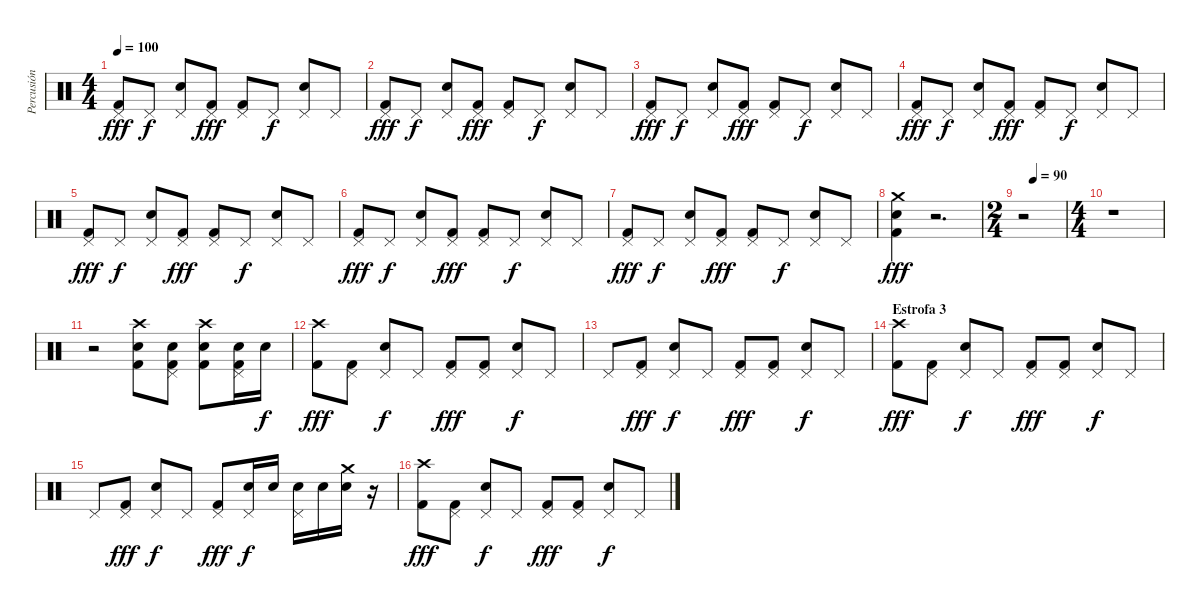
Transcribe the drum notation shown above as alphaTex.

\track ("Percusión" "Percusión") {instrument percussion}
\staff {score}
\articulation defaults
\ts (4 4)
\tempo 100
\clef neutral
\ks c
("Pedal Hi-Hat (hit)" "Kick (hit) 2").8{dy fff} "Pedal Hi-Hat (hit)".8{dy f} ("Pedal Hi-Hat (hit)" "Snare (hit) 2").8 ("Pedal Hi-Hat (hit)" "Kick (hit) 2").8{dy fff} ("Pedal Hi-Hat (hit)" "Kick (hit) 2").8 "Pedal Hi-Hat (hit)".8{dy f} ("Pedal Hi-Hat (hit)" "Snare (hit) 2").8 "Pedal Hi-Hat (hit)".8 |
("Pedal Hi-Hat (hit)" "Kick (hit) 2").8{dy fff} "Pedal Hi-Hat (hit)".8{dy f} ("Pedal Hi-Hat (hit)" "Snare (hit) 2").8 ("Pedal Hi-Hat (hit)" "Kick (hit) 2").8{dy fff} ("Pedal Hi-Hat (hit)" "Kick (hit) 2").8 "Pedal Hi-Hat (hit)".8{dy f} ("Pedal Hi-Hat (hit)" "Snare (hit) 2").8 "Pedal Hi-Hat (hit)".8 |
("Pedal Hi-Hat (hit)" "Kick (hit) 2").8{dy fff} "Pedal Hi-Hat (hit)".8{dy f} ("Pedal Hi-Hat (hit)" "Snare (hit) 2").8 ("Pedal Hi-Hat (hit)" "Kick (hit) 2").8{dy fff} ("Pedal Hi-Hat (hit)" "Kick (hit) 2").8 "Pedal Hi-Hat (hit)".8{dy f} ("Pedal Hi-Hat (hit)" "Snare (hit) 2").8 "Pedal Hi-Hat (hit)".8 |
("Pedal Hi-Hat (hit)" "Kick (hit) 2").8{dy fff} "Pedal Hi-Hat (hit)".8{dy f} ("Pedal Hi-Hat (hit)" "Snare (hit) 2").8 ("Pedal Hi-Hat (hit)" "Kick (hit) 2").8{dy fff} ("Pedal Hi-Hat (hit)" "Kick (hit) 2").8 "Pedal Hi-Hat (hit)".8{dy f} ("Pedal Hi-Hat (hit)" "Snare (hit) 2").8 "Pedal Hi-Hat (hit)".8 |
("Pedal Hi-Hat (hit)" "Kick (hit) 2").8{dy fff} "Pedal Hi-Hat (hit)".8{dy f} ("Pedal Hi-Hat (hit)" "Snare (hit) 2").8 ("Pedal Hi-Hat (hit)" "Kick (hit) 2").8{dy fff} ("Pedal Hi-Hat (hit)" "Kick (hit) 2").8 "Pedal Hi-Hat (hit)".8{dy f} ("Pedal Hi-Hat (hit)" "Snare (hit) 2").8 "Pedal Hi-Hat (hit)".8 |
("Pedal Hi-Hat (hit)" "Kick (hit) 2").8{dy fff} "Pedal Hi-Hat (hit)".8{dy f} ("Pedal Hi-Hat (hit)" "Snare (hit) 2").8 ("Pedal Hi-Hat (hit)" "Kick (hit) 2").8{dy fff} ("Pedal Hi-Hat (hit)" "Kick (hit) 2").8 "Pedal Hi-Hat (hit)".8{dy f} ("Pedal Hi-Hat (hit)" "Snare (hit) 2").8 "Pedal Hi-Hat (hit)".8 |
("Pedal Hi-Hat (hit)" "Kick (hit) 2").8{dy fff} "Pedal Hi-Hat (hit)".8{dy f} ("Pedal Hi-Hat (hit)" "Snare (hit) 2").8 ("Pedal Hi-Hat (hit)" "Kick (hit) 2").8{dy fff} ("Pedal Hi-Hat (hit)" "Kick (hit) 2").8 "Pedal Hi-Hat (hit)".8{dy f} ("Pedal Hi-Hat (hit)" "Snare (hit) 2").8 "Pedal Hi-Hat (hit)".8 |
("Crash medium (hit)" "Kick (hit) 2" "Snare (hit) 2").4{dy fff} r.2{d} |
\ts (2 4)
\tempo (90 0.25)
r.2 |
\ts (4 4)
r.1 |
r.2 ("Crash high (hit)" "Kick (hit) 2" "Snare (hit) 2").8 ("Pedal Hi-Hat (hit)" "Kick (hit) 2" "Snare (hit) 2").8 ("Crash high (hit)" "Kick (hit) 2" "Snare (hit) 2").8 ("Pedal Hi-Hat (hit)" "Kick (hit) 2" "Snare (hit) 2").16 "Snare (hit) 2".16{dy f} |
("Crash high (hit)" "Kick (hit) 2").8{dy fff balance 12} ("Pedal Hi-Hat (hit)" "Kick (hit) 2").8{balance 8} ("Pedal Hi-Hat (hit)" "Snare (hit) 2").8{dy f} "Pedal Hi-Hat (hit)".8 ("Pedal Hi-Hat (hit)" "Kick (hit) 2").8{dy fff} ("Pedal Hi-Hat (hit)" "Kick (hit) 2").8 ("Pedal Hi-Hat (hit)" "Snare (hit) 2").8{dy f} "Pedal Hi-Hat (hit)".8 |
"Pedal Hi-Hat (hit)".8 ("Pedal Hi-Hat (hit)" "Kick (hit) 2").8{dy fff} ("Pedal Hi-Hat (hit)" "Snare (hit) 2").8{dy f} "Pedal Hi-Hat (hit)".8 ("Pedal Hi-Hat (hit)" "Kick (hit) 2").8{dy fff} ("Pedal Hi-Hat (hit)" "Kick (hit) 2").8 ("Pedal Hi-Hat (hit)" "Snare (hit) 2").8{dy f} "Pedal Hi-Hat (hit)".8 |
\section ("" "Estrofa 3")
("Crash high (hit)" "Kick (hit) 2").8{dy fff balance 4} ("Pedal Hi-Hat (hit)" "Kick (hit) 2").8{balance 8} ("Pedal Hi-Hat (hit)" "Snare (hit) 2").8{dy f} "Pedal Hi-Hat (hit)".8 ("Pedal Hi-Hat (hit)" "Kick (hit) 2").8{dy fff} ("Pedal Hi-Hat (hit)" "Kick (hit) 2").8 ("Pedal Hi-Hat (hit)" "Snare (hit) 2").8{dy f} "Pedal Hi-Hat (hit)".8 |
"Pedal Hi-Hat (hit)".8 ("Pedal Hi-Hat (hit)" "Kick (hit) 2").8{dy fff} ("Pedal Hi-Hat (hit)" "Snare (hit) 2").8{dy f} "Pedal Hi-Hat (hit)".8 ("Pedal Hi-Hat (hit)" "Kick (hit) 2").8{dy fff} ("Pedal Hi-Hat (hit)" "Snare (hit) 2").16{dy f} "Snare (hit) 2".16 ("Pedal Hi-Hat (hit)" "Snare (hit) 2").16 "Snare (hit) 2".16 ("Crash medium (hit)" "Snare (hit) 2").16{balance 12} r.16 |
("Crash high (hit)" "Kick (hit) 2").8{dy fff balance 4} ("Pedal Hi-Hat (hit)" "Kick (hit) 2").8{balance 8} ("Pedal Hi-Hat (hit)" "Snare (hit) 2").8{dy f} "Pedal Hi-Hat (hit)".8 ("Pedal Hi-Hat (hit)" "Kick (hit) 2").8{dy fff} ("Pedal Hi-Hat (hit)" "Kick (hit) 2").8 ("Pedal Hi-Hat (hit)" "Snare (hit) 2").8{dy f} "Pedal Hi-Hat (hit)".8
